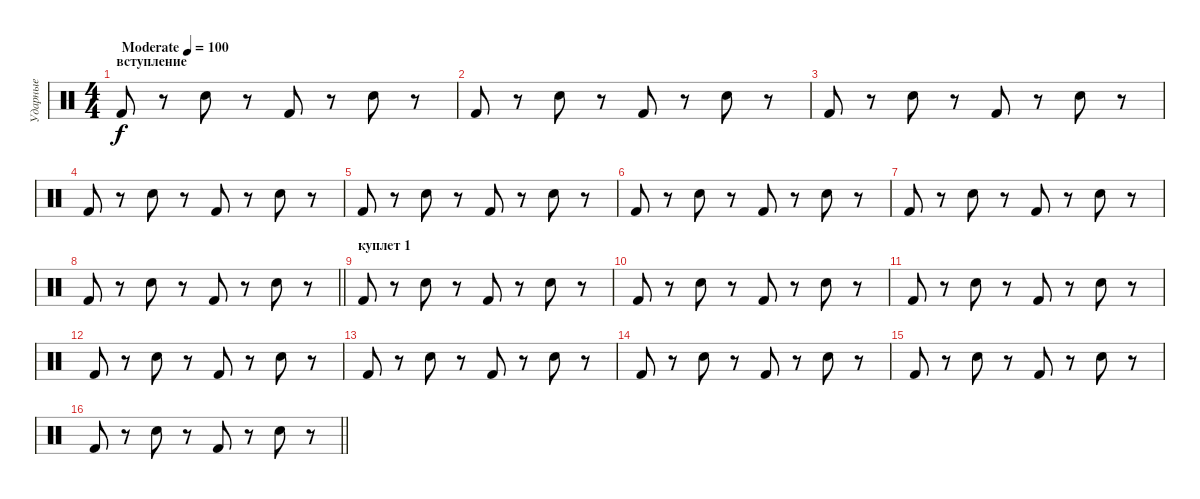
\track ("Ударные" "Ударные") {instrument percussion}
\staff {score}
\articulation defaults
\ts (4 4)
\section ("" "вступление")
\tempo (100 "Moderate")
\clef neutral
\ks c "Kick (hit) 2".8{dy f}
r.8 "Hand Clap (hit)".8 r.8 "Kick (hit) 2".8 r.8 "Hand Clap (hit)".8 r.8 |
"Kick (hit) 2".8 r.8 "Hand Clap (hit)".8 r.8 "Kick (hit) 2".8 r.8 "Hand Clap (hit)".8 r.8 |
"Kick (hit) 2".8 r.8 "Hand Clap (hit)".8 r.8 "Kick (hit) 2".8 r.8 "Hand Clap (hit)".8 r.8 |
"Kick (hit) 2".8 r.8 "Hand Clap (hit)".8 r.8 "Kick (hit) 2".8 r.8 "Hand Clap (hit)".8 r.8 |
"Kick (hit) 2".8 r.8 "Hand Clap (hit)".8 r.8 "Kick (hit) 2".8 r.8 "Hand Clap (hit)".8 r.8 |
"Kick (hit) 2".8 r.8 "Hand Clap (hit)".8 r.8 "Kick (hit) 2".8 r.8 "Hand Clap (hit)".8 r.8 |
"Kick (hit) 2".8 r.8 "Hand Clap (hit)".8 r.8 "Kick (hit) 2".8 r.8 "Hand Clap (hit)".8 r.8 |
\barLineRight lightlight "Kick (hit) 2".8
r.8 "Hand Clap (hit)".8 r.8 "Kick (hit) 2".8 r.8 "Hand Clap (hit)".8 r.8 |
\section ("" "куплет 1")
"Kick (hit) 2".8 r.8 "Hand Clap (hit)".8 r.8 "Kick (hit) 2".8 r.8 "Hand Clap (hit)".8 r.8 |
"Kick (hit) 2".8 r.8 "Hand Clap (hit)".8 r.8 "Kick (hit) 2".8 r.8 "Hand Clap (hit)".8 r.8 |
"Kick (hit) 2".8 r.8 "Hand Clap (hit)".8 r.8 "Kick (hit) 2".8 r.8 "Hand Clap (hit)".8 r.8 |
"Kick (hit) 2".8 r.8 "Hand Clap (hit)".8 r.8 "Kick (hit) 2".8 r.8 "Hand Clap (hit)".8 r.8 |
"Kick (hit) 2".8 r.8 "Hand Clap (hit)".8 r.8 "Kick (hit) 2".8 r.8 "Hand Clap (hit)".8 r.8 |
"Kick (hit) 2".8 r.8 "Hand Clap (hit)".8 r.8 "Kick (hit) 2".8 r.8 "Hand Clap (hit)".8 r.8 |
"Kick (hit) 2".8 r.8 "Hand Clap (hit)".8 r.8 "Kick (hit) 2".8 r.8 "Hand Clap (hit)".8 r.8 |
\barLineRight lightlight "Kick (hit) 2".8
r.8 "Hand Clap (hit)".8 r.8 "Kick (hit) 2".8 r.8 "Hand Clap (hit)".8 r.8
